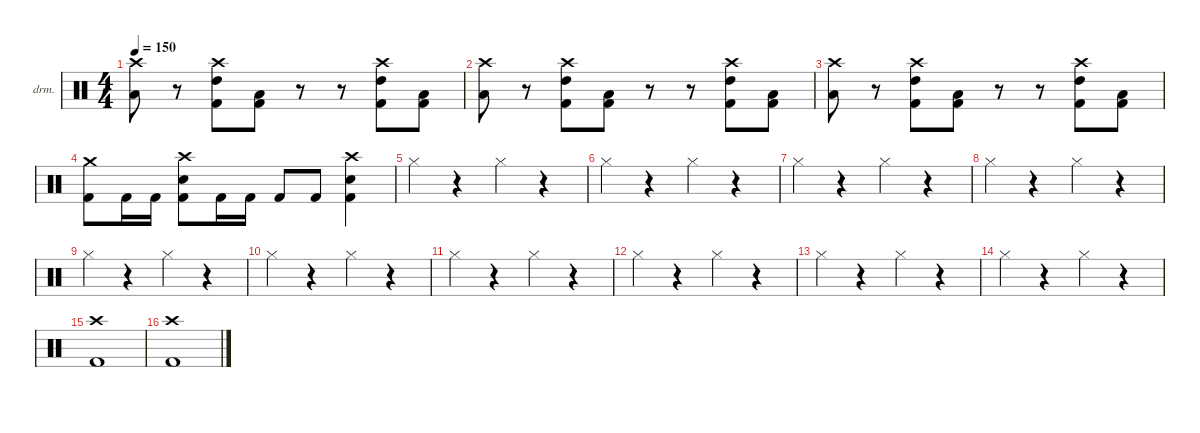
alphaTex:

\defaultSystemsLayout 4
\hideDynamics
\bracketExtendMode nobrackets
\firstSystemTrackNameOrientation horizontal
\otherSystemsTrackNameOrientation horizontal
\track ("Drumkit" "drm.") {instrument percussion}
\staff {score}
\articulation defaults
\ts (4 4)
\tempo 150
\clef neutral
\ks c
("Crash high (hit)" "Low Tom (hit)").8{dy f} r.8 ("Kick (hit) 2" "Crash high (hit)" "High Tom (hit)").8 ("Kick (hit) 2" "Low Tom (hit)").8 r.8 r.8 ("Kick (hit) 2" "Crash high (hit)" "High Tom (hit)").8 ("Kick (hit) 2" "Low Tom (hit)").8 |
("Crash high (hit)" "Low Tom (hit)").8 r.8 ("Kick (hit) 2" "Crash high (hit)" "High Tom (hit)").8 ("Kick (hit) 2" "Low Tom (hit)").8 r.8 r.8 ("Kick (hit) 2" "Crash high (hit)" "High Tom (hit)").8 ("Kick (hit) 2" "Low Tom (hit)").8 |
("Crash high (hit)" "Low Tom (hit)").8 r.8 ("Kick (hit) 2" "Crash high (hit)" "High Tom (hit)").8 ("Kick (hit) 2" "Low Tom (hit)").8 r.8 r.8 ("Kick (hit) 2" "Crash high (hit)" "High Tom (hit)").8 ("Kick (hit) 2" "Low Tom (hit)").8 |
("Crash medium (hit)" "Kick (hit) 2").8 "Kick (hit) 2".16 "Kick (hit) 2".16 ("Crash high (hit)" "Snare (hit) 2" "Kick (hit) 2").8 "Kick (hit) 2".16 "Kick (hit) 2".16 "Kick (hit) 2".8 "Kick (hit) 2".8 ("Crash high (hit)" "Snare (hit) 2" "Kick (hit) 2").4 |
"Hi-Hat (closed)".4 r.4 "Hi-Hat (closed)".4 r.4 |
"Hi-Hat (closed)".4 r.4 "Hi-Hat (closed)".4 r.4 |
"Hi-Hat (closed)".4 r.4 "Hi-Hat (closed)".4 r.4 |
"Hi-Hat (closed)".4 r.4 "Hi-Hat (closed)".4 r.4 |
"Hi-Hat (closed)".4 r.4 "Hi-Hat (closed)".4 r.4 |
"Hi-Hat (closed)".4 r.4 "Hi-Hat (closed)".4 r.4 |
"Hi-Hat (closed)".4 r.4 "Hi-Hat (closed)".4 r.4 |
"Hi-Hat (closed)".4 r.4 "Hi-Hat (closed)".4 r.4 |
"Hi-Hat (closed)".4 r.4 "Hi-Hat (closed)".4 r.4 |
"Hi-Hat (closed)".4 r.4 "Hi-Hat (closed)".4 r.4 |
("Kick (hit) 2" "Crash high (hit)").1 |
("Kick (hit) 2" "Crash high (hit)").1
